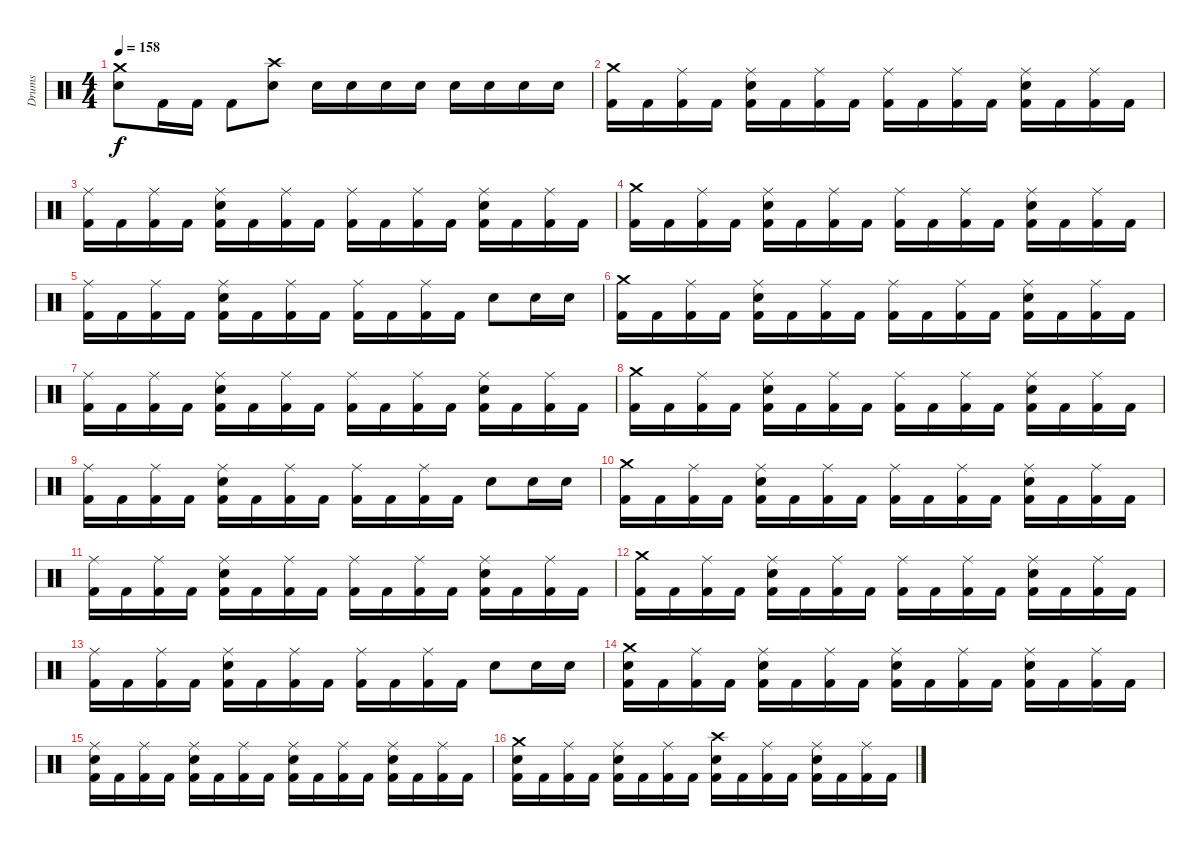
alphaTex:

\track ("Drums" "Drums") {instrument percussion}
\staff {score}
\articulation defaults
\ts (4 4)
\tempo 158
\clef neutral
\ks c
("Crash medium (hit)" "Electric Snare (hit)").8{dy f} "Kick (hit) 2".16 "Kick (hit) 2".16 "Kick (hit) 2".8 ("Crash high (hit)" "Electric Snare (hit)").8 "Electric Snare (hit)".16 "Electric Snare (hit)".16 "Electric Snare (hit)".16 "Electric Snare (hit)".16 "Electric Snare (hit)".16 "Electric Snare (hit)".16 "Electric Snare (hit)".16 "Electric Snare (hit)".16 |
("Crash medium (hit)" "Kick (hit) 2").16 "Kick (hit) 2".16 ("Ride (middle)" "Kick (hit) 2").16 "Kick (hit) 2".16 ("Ride (middle)" "Electric Snare (hit)" "Kick (hit) 2").16 "Kick (hit) 2".16 ("Ride (middle)" "Kick (hit) 2").16 "Kick (hit) 2".16 ("Ride (middle)" "Kick (hit) 2").16 "Kick (hit) 2".16 ("Ride (middle)" "Kick (hit) 2").16 "Kick (hit) 2".16 ("Ride (middle)" "Electric Snare (hit)" "Kick (hit) 2").16 "Kick (hit) 2".16 ("Ride (middle)" "Kick (hit) 2").16 "Kick (hit) 2".16 |
("Ride (middle)" "Kick (hit) 2").16 "Kick (hit) 2".16 ("Ride (middle)" "Kick (hit) 2").16 "Kick (hit) 2".16 ("Ride (middle)" "Electric Snare (hit)" "Kick (hit) 2").16 "Kick (hit) 2".16 ("Ride (middle)" "Kick (hit) 2").16 "Kick (hit) 2".16 ("Ride (middle)" "Kick (hit) 2").16 "Kick (hit) 2".16 ("Ride (middle)" "Kick (hit) 2").16 "Kick (hit) 2".16 ("Ride (middle)" "Electric Snare (hit)" "Kick (hit) 2").16 "Kick (hit) 2".16 ("Ride (middle)" "Kick (hit) 2").16 "Kick (hit) 2".16 |
("Crash medium (hit)" "Kick (hit) 2").16 "Kick (hit) 2".16 ("Ride (middle)" "Kick (hit) 2").16 "Kick (hit) 2".16 ("Ride (middle)" "Electric Snare (hit)" "Kick (hit) 2").16 "Kick (hit) 2".16 ("Ride (middle)" "Kick (hit) 2").16 "Kick (hit) 2".16 ("Ride (middle)" "Kick (hit) 2").16 "Kick (hit) 2".16 ("Ride (middle)" "Kick (hit) 2").16 "Kick (hit) 2".16 ("Ride (middle)" "Electric Snare (hit)" "Kick (hit) 2").16 "Kick (hit) 2".16 ("Ride (middle)" "Kick (hit) 2").16 "Kick (hit) 2".16 |
("Ride (middle)" "Kick (hit) 2").16 "Kick (hit) 2".16 ("Ride (middle)" "Kick (hit) 2").16 "Kick (hit) 2".16 ("Ride (middle)" "Electric Snare (hit)" "Kick (hit) 2").16 "Kick (hit) 2".16 ("Ride (middle)" "Kick (hit) 2").16 "Kick (hit) 2".16 ("Ride (middle)" "Kick (hit) 2").16 "Kick (hit) 2".16 ("Ride (middle)" "Kick (hit) 2").16 "Kick (hit) 2".16 "Electric Snare (hit)".8 "Electric Snare (hit)".16 "Electric Snare (hit)".16 |
("Crash medium (hit)" "Kick (hit) 2").16 "Kick (hit) 2".16 ("Ride (middle)" "Kick (hit) 2").16 "Kick (hit) 2".16 ("Ride (middle)" "Electric Snare (hit)" "Kick (hit) 2").16 "Kick (hit) 2".16 ("Ride (middle)" "Kick (hit) 2").16 "Kick (hit) 2".16 ("Ride (middle)" "Kick (hit) 2").16 "Kick (hit) 2".16 ("Ride (middle)" "Kick (hit) 2").16 "Kick (hit) 2".16 ("Ride (middle)" "Electric Snare (hit)" "Kick (hit) 2").16 "Kick (hit) 2".16 ("Ride (middle)" "Kick (hit) 2").16 "Kick (hit) 2".16 |
("Ride (middle)" "Kick (hit) 2").16 "Kick (hit) 2".16 ("Ride (middle)" "Kick (hit) 2").16 "Kick (hit) 2".16 ("Ride (middle)" "Electric Snare (hit)" "Kick (hit) 2").16 "Kick (hit) 2".16 ("Ride (middle)" "Kick (hit) 2").16 "Kick (hit) 2".16 ("Ride (middle)" "Kick (hit) 2").16 "Kick (hit) 2".16 ("Ride (middle)" "Kick (hit) 2").16 "Kick (hit) 2".16 ("Ride (middle)" "Electric Snare (hit)" "Kick (hit) 2").16 "Kick (hit) 2".16 ("Ride (middle)" "Kick (hit) 2").16 "Kick (hit) 2".16 |
("Crash medium (hit)" "Kick (hit) 2").16 "Kick (hit) 2".16 ("Ride (middle)" "Kick (hit) 2").16 "Kick (hit) 2".16 ("Ride (middle)" "Electric Snare (hit)" "Kick (hit) 2").16 "Kick (hit) 2".16 ("Ride (middle)" "Kick (hit) 2").16 "Kick (hit) 2".16 ("Ride (middle)" "Kick (hit) 2").16 "Kick (hit) 2".16 ("Ride (middle)" "Kick (hit) 2").16 "Kick (hit) 2".16 ("Ride (middle)" "Electric Snare (hit)" "Kick (hit) 2").16 "Kick (hit) 2".16 ("Ride (middle)" "Kick (hit) 2").16 "Kick (hit) 2".16 |
("Ride (middle)" "Kick (hit) 2").16 "Kick (hit) 2".16 ("Ride (middle)" "Kick (hit) 2").16 "Kick (hit) 2".16 ("Ride (middle)" "Electric Snare (hit)" "Kick (hit) 2").16 "Kick (hit) 2".16 ("Ride (middle)" "Kick (hit) 2").16 "Kick (hit) 2".16 ("Ride (middle)" "Kick (hit) 2").16 "Kick (hit) 2".16 ("Ride (middle)" "Kick (hit) 2").16 "Kick (hit) 2".16 "Electric Snare (hit)".8 "Electric Snare (hit)".16 "Electric Snare (hit)".16 |
("Crash medium (hit)" "Kick (hit) 2").16 "Kick (hit) 2".16 ("Ride (middle)" "Kick (hit) 2").16 "Kick (hit) 2".16 ("Ride (middle)" "Electric Snare (hit)" "Kick (hit) 2").16 "Kick (hit) 2".16 ("Ride (middle)" "Kick (hit) 2").16 "Kick (hit) 2".16 ("Ride (middle)" "Kick (hit) 2").16 "Kick (hit) 2".16 ("Ride (middle)" "Kick (hit) 2").16 "Kick (hit) 2".16 ("Ride (middle)" "Electric Snare (hit)" "Kick (hit) 2").16 "Kick (hit) 2".16 ("Ride (middle)" "Kick (hit) 2").16 "Kick (hit) 2".16 |
("Ride (middle)" "Kick (hit) 2").16 "Kick (hit) 2".16 ("Ride (middle)" "Kick (hit) 2").16 "Kick (hit) 2".16 ("Ride (middle)" "Electric Snare (hit)" "Kick (hit) 2").16 "Kick (hit) 2".16 ("Ride (middle)" "Kick (hit) 2").16 "Kick (hit) 2".16 ("Ride (middle)" "Kick (hit) 2").16 "Kick (hit) 2".16 ("Ride (middle)" "Kick (hit) 2").16 "Kick (hit) 2".16 ("Ride (middle)" "Electric Snare (hit)" "Kick (hit) 2").16 "Kick (hit) 2".16 ("Ride (middle)" "Kick (hit) 2").16 "Kick (hit) 2".16 |
("Crash medium (hit)" "Kick (hit) 2").16 "Kick (hit) 2".16 ("Ride (middle)" "Kick (hit) 2").16 "Kick (hit) 2".16 ("Ride (middle)" "Electric Snare (hit)" "Kick (hit) 2").16 "Kick (hit) 2".16 ("Ride (middle)" "Kick (hit) 2").16 "Kick (hit) 2".16 ("Ride (middle)" "Kick (hit) 2").16 "Kick (hit) 2".16 ("Ride (middle)" "Kick (hit) 2").16 "Kick (hit) 2".16 ("Ride (middle)" "Electric Snare (hit)" "Kick (hit) 2").16 "Kick (hit) 2".16 ("Ride (middle)" "Kick (hit) 2").16 "Kick (hit) 2".16 |
("Ride (middle)" "Kick (hit) 2").16 "Kick (hit) 2".16 ("Ride (middle)" "Kick (hit) 2").16 "Kick (hit) 2".16 ("Ride (middle)" "Electric Snare (hit)" "Kick (hit) 2").16 "Kick (hit) 2".16 ("Ride (middle)" "Kick (hit) 2").16 "Kick (hit) 2".16 ("Ride (middle)" "Kick (hit) 2").16 "Kick (hit) 2".16 ("Ride (middle)" "Kick (hit) 2").16 "Kick (hit) 2".16 "Electric Snare (hit)".8 "Electric Snare (hit)".16 "Electric Snare (hit)".16 |
("Crash medium (hit)" "Electric Snare (hit)" "Kick (hit) 2").16 "Kick (hit) 2".16 ("Ride (middle)" "Kick (hit) 2").16 "Kick (hit) 2".16 ("Ride (middle)" "Electric Snare (hit)" "Kick (hit) 2").16 "Kick (hit) 2".16 ("Ride (middle)" "Kick (hit) 2").16 "Kick (hit) 2".16 ("Ride (middle)" "Electric Snare (hit)" "Kick (hit) 2").16 "Kick (hit) 2".16 ("Ride (middle)" "Kick (hit) 2").16 "Kick (hit) 2".16 ("Ride (middle)" "Electric Snare (hit)" "Kick (hit) 2").16 "Kick (hit) 2".16 ("Ride (middle)" "Kick (hit) 2").16 "Kick (hit) 2".16 |
("Ride (middle)" "Electric Snare (hit)" "Kick (hit) 2").16 "Kick (hit) 2".16 ("Ride (middle)" "Kick (hit) 2").16 "Kick (hit) 2".16 ("Ride (middle)" "Electric Snare (hit)" "Kick (hit) 2").16 "Kick (hit) 2".16 ("Ride (middle)" "Kick (hit) 2").16 "Kick (hit) 2".16 ("Ride (middle)" "Electric Snare (hit)" "Kick (hit) 2").16 "Kick (hit) 2".16 ("Ride (middle)" "Kick (hit) 2").16 "Kick (hit) 2".16 ("Ride (middle)" "Electric Snare (hit)" "Kick (hit) 2").16 "Kick (hit) 2".16 ("Ride (middle)" "Kick (hit) 2").16 "Kick (hit) 2".16 |
("Crash medium (hit)" "Electric Snare (hit)" "Kick (hit) 2").16 "Kick (hit) 2".16 ("Ride (middle)" "Kick (hit) 2").16 "Kick (hit) 2".16 ("Ride (middle)" "Electric Snare (hit)" "Kick (hit) 2").16 "Kick (hit) 2".16 ("Ride (middle)" "Kick (hit) 2").16 "Kick (hit) 2".16 ("Crash high (hit)" "Electric Snare (hit)" "Kick (hit) 2").16 "Kick (hit) 2".16 ("Ride (middle)" "Kick (hit) 2").16 "Kick (hit) 2".16 ("Ride (middle)" "Electric Snare (hit)" "Kick (hit) 2").16 "Kick (hit) 2".16 ("Ride (middle)" "Kick (hit) 2").16 "Kick (hit) 2".16
